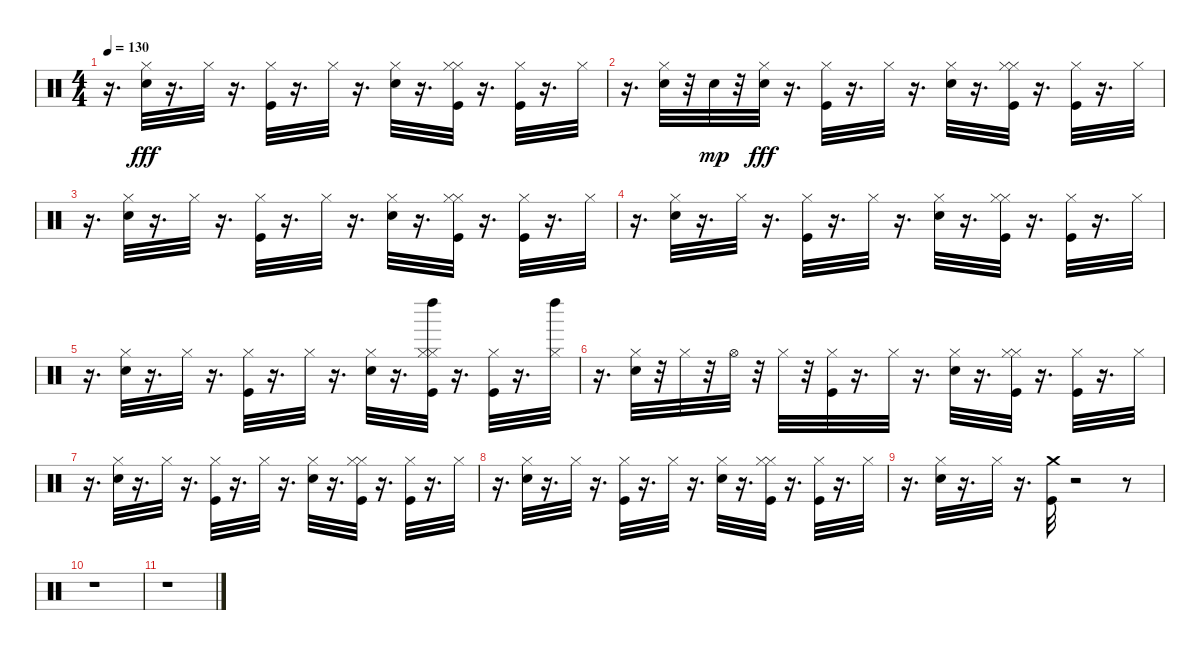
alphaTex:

\track "" {instrument percussion}
\staff {score}
\articulation defaults
\ts (4 4)
\tempo 130
\clef neutral
\ks c
r.16{d dy fff} ("Hi-Hat (closed)" "Electric Snare (hit)").32 r.16{d} "Hi-Hat (closed)".32 r.16{d} ("Hi-Hat (closed)" "Kick (hit)").32 r.16{d} "Hi-Hat (closed)".32 r.16{d} ("Hi-Hat (closed)" "Electric Snare (hit)").32 r.16{d} ("Hi-Hat (closed)" "Hi-Hat (closed)" "Kick (hit)").32 r.16{d} ("Hi-Hat (closed)" "Kick (hit)").32 r.16{d} "Hi-Hat (closed)".32 |
r.16{d} ("Hi-Hat (closed)" "Electric Snare (hit)").32 r.32 "Snare (hit) 2".32{dy mp} r.32 ("Snare (hit) 2" "Hi-Hat (closed)").32{dy fff} r.16{d} ("Hi-Hat (closed)" "Kick (hit)").32 r.16{d} "Hi-Hat (closed)".32 r.16{d} ("Hi-Hat (closed)" "Electric Snare (hit)").32 r.16{d} ("Hi-Hat (closed)" "Hi-Hat (closed)" "Kick (hit)").32 r.16{d} ("Hi-Hat (closed)" "Kick (hit)").32 r.16{d} "Hi-Hat (closed)".32 |
r.16{d} ("Hi-Hat (closed)" "Electric Snare (hit)").32 r.16{d} "Hi-Hat (closed)".32 r.16{d} ("Hi-Hat (closed)" "Kick (hit)").32 r.16{d} "Hi-Hat (closed)".32 r.16{d} ("Hi-Hat (closed)" "Electric Snare (hit)").32 r.16{d} ("Hi-Hat (closed)" "Hi-Hat (closed)" "Kick (hit)").32 r.16{d} ("Hi-Hat (closed)" "Kick (hit)").32 r.16{d} "Hi-Hat (closed)".32 |
r.16{d} ("Hi-Hat (closed)" "Electric Snare (hit)").32 r.16{d} "Hi-Hat (closed)".32 r.16{d} ("Hi-Hat (closed)" "Kick (hit)").32 r.16{d} "Hi-Hat (closed)".32 r.16{d} ("Hi-Hat (closed)" "Electric Snare (hit)").32 r.16{d} ("Hi-Hat (closed)" "Hi-Hat (closed)" "Kick (hit)").32 r.16{d} ("Hi-Hat (closed)" "Kick (hit)").32 r.16{d} "Hi-Hat (closed)".32 |
r.16{d} ("Hi-Hat (closed)" "Electric Snare (hit)").32 r.16{d} "Hi-Hat (closed)".32 r.16{d} ("Hi-Hat (closed)" "Kick (hit)").32 r.16{d} "Hi-Hat (closed)".32 r.16{d} ("Hi-Hat (closed)" "Electric Snare (hit)").32 r.16{d} ("Hi-Hat (closed)" "Left Maraca (hit)" "Hi-Hat (closed)" "Kick (hit)").32 r.16{d} ("Hi-Hat (closed)" "Kick (hit)").32 r.16{d} ("Left Maraca (hit)" "Hi-Hat (closed)").32 |
r.16{d} ("Hi-Hat (closed)" "Electric Snare (hit)").32 r.32 "Hi-Hat (closed)".32 r.32 "Hi-Hat (open)".32 r.32 "Hi-Hat (closed)".32 r.32 ("Hi-Hat (closed)" "Kick (hit)").32 r.16{d} "Hi-Hat (closed)".32 r.16{d} ("Hi-Hat (closed)" "Electric Snare (hit)").32 r.16{d} ("Hi-Hat (closed)" "Hi-Hat (closed)" "Kick (hit)").32 r.16{d} ("Hi-Hat (closed)" "Kick (hit)").32 r.16{d} "Hi-Hat (closed)".32 |
r.16{d} ("Hi-Hat (closed)" "Electric Snare (hit)").32 r.16{d} "Hi-Hat (closed)".32 r.16{d} ("Hi-Hat (closed)" "Kick (hit)").32 r.16{d} "Hi-Hat (closed)".32 r.16{d} ("Hi-Hat (closed)" "Electric Snare (hit)").32 r.16{d} ("Hi-Hat (closed)" "Hi-Hat (closed)" "Kick (hit)").32 r.16{d} ("Hi-Hat (closed)" "Kick (hit)").32 r.16{d} "Hi-Hat (closed)".32 |
r.16{d} ("Hi-Hat (closed)" "Electric Snare (hit)").32 r.16{d} "Hi-Hat (closed)".32 r.16{d} ("Hi-Hat (closed)" "Kick (hit)").32 r.16{d} "Hi-Hat (closed)".32 r.16{d} ("Hi-Hat (closed)" "Electric Snare (hit)").32 r.16{d} ("Hi-Hat (closed)" "Hi-Hat (closed)" "Kick (hit)").32 r.16{d} ("Hi-Hat (closed)" "Kick (hit)").32 r.16{d} "Hi-Hat (closed)".32 |
r.16{d} ("Hi-Hat (closed)" "Electric Snare (hit)").32 r.16{d} "Hi-Hat (closed)".32 r.16{d} ("Crash medium (hit)" "Kick (hit)").32 r.2 r.8 |
r.1 |
r.1
